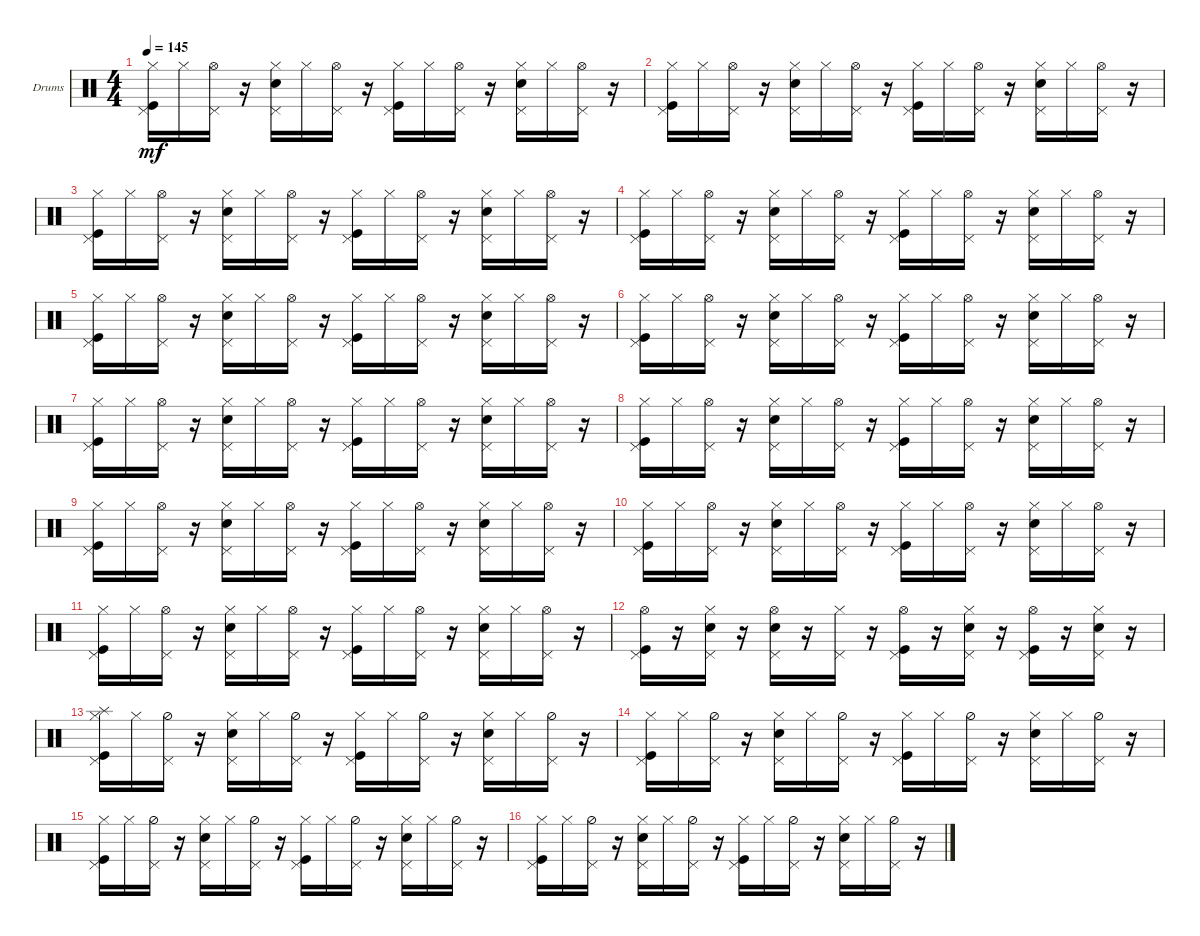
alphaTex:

\bracketExtendMode groupsimilarinstruments
\firstSystemTrackNameOrientation horizontal
\otherSystemsTrackNameOrientation horizontal
\track ("Drumkit" "Drums") {solo instrument percussion}
\staff {score}
\articulation defaults
\ts (4 4)
\tempo 145
\clef neutral
\ks c
("Kick (hit)" "Hi-Hat (closed)" "Pedal Hi-Hat (hit)").16{dy mf} "Hi-Hat (closed)".16 ("Pedal Hi-Hat (hit)" "Hi-Hat (open)").16 r.16 ("Snare (hit) 2" "Pedal Hi-Hat (hit)" "Hi-Hat (closed)").16 "Hi-Hat (closed)".16 ("Hi-Hat (open)" "Pedal Hi-Hat (hit)").16 r.16 ("Kick (hit)" "Hi-Hat (closed)" "Pedal Hi-Hat (hit)").16 "Hi-Hat (closed)".16 ("Hi-Hat (open)" "Pedal Hi-Hat (hit)").16 r.16 ("Snare (hit) 2" "Pedal Hi-Hat (hit)" "Hi-Hat (closed)").16 "Hi-Hat (closed)".16 ("Hi-Hat (open)" "Pedal Hi-Hat (hit)").16 r.16 |
("Kick (hit)" "Hi-Hat (closed)" "Pedal Hi-Hat (hit)").16 "Hi-Hat (closed)".16 ("Hi-Hat (open)" "Pedal Hi-Hat (hit)").16 r.16 ("Snare (hit) 2" "Pedal Hi-Hat (hit)" "Hi-Hat (closed)").16 "Hi-Hat (closed)".16 ("Hi-Hat (open)" "Pedal Hi-Hat (hit)").16 r.16 ("Kick (hit)" "Hi-Hat (closed)" "Pedal Hi-Hat (hit)").16 "Hi-Hat (closed)".16 ("Hi-Hat (open)" "Pedal Hi-Hat (hit)").16 r.16 ("Snare (hit) 2" "Pedal Hi-Hat (hit)" "Hi-Hat (closed)").16 "Hi-Hat (closed)".16 ("Hi-Hat (open)" "Pedal Hi-Hat (hit)").16 r.16 |
("Kick (hit)" "Hi-Hat (closed)" "Pedal Hi-Hat (hit)").16 "Hi-Hat (closed)".16 ("Hi-Hat (open)" "Pedal Hi-Hat (hit)").16 r.16 ("Snare (hit) 2" "Pedal Hi-Hat (hit)" "Hi-Hat (closed)").16 "Hi-Hat (closed)".16 ("Hi-Hat (open)" "Pedal Hi-Hat (hit)").16 r.16 ("Kick (hit)" "Hi-Hat (closed)" "Pedal Hi-Hat (hit)").16 "Hi-Hat (closed)".16 ("Hi-Hat (open)" "Pedal Hi-Hat (hit)").16 r.16 ("Snare (hit) 2" "Pedal Hi-Hat (hit)" "Hi-Hat (closed)").16 "Hi-Hat (closed)".16 ("Hi-Hat (open)" "Pedal Hi-Hat (hit)").16 r.16 |
("Kick (hit)" "Hi-Hat (closed)" "Pedal Hi-Hat (hit)").16 "Hi-Hat (closed)".16 ("Hi-Hat (open)" "Pedal Hi-Hat (hit)").16 r.16 ("Snare (hit) 2" "Pedal Hi-Hat (hit)" "Hi-Hat (closed)").16 "Hi-Hat (closed)".16 ("Hi-Hat (open)" "Pedal Hi-Hat (hit)").16 r.16 ("Kick (hit)" "Hi-Hat (closed)" "Pedal Hi-Hat (hit)").16 "Hi-Hat (closed)".16 ("Hi-Hat (open)" "Pedal Hi-Hat (hit)").16 r.16 ("Snare (hit) 2" "Pedal Hi-Hat (hit)" "Hi-Hat (closed)").16 "Hi-Hat (closed)".16 ("Hi-Hat (open)" "Pedal Hi-Hat (hit)").16 r.16 |
("Pedal Hi-Hat (hit)" "Kick (hit)" "Hi-Hat (closed)").16 "Hi-Hat (closed)".16 ("Hi-Hat (open)" "Pedal Hi-Hat (hit)").16 r.16 ("Snare (hit) 2" "Pedal Hi-Hat (hit)" "Hi-Hat (closed)").16 "Hi-Hat (closed)".16 ("Hi-Hat (open)" "Pedal Hi-Hat (hit)").16 r.16 ("Kick (hit)" "Hi-Hat (closed)" "Pedal Hi-Hat (hit)").16 "Hi-Hat (closed)".16 ("Hi-Hat (open)" "Pedal Hi-Hat (hit)").16 r.16 ("Snare (hit) 2" "Pedal Hi-Hat (hit)" "Hi-Hat (closed)").16 "Hi-Hat (closed)".16 ("Hi-Hat (open)" "Pedal Hi-Hat (hit)").16 r.16 |
("Kick (hit)" "Hi-Hat (closed)" "Pedal Hi-Hat (hit)").16 "Hi-Hat (closed)".16 ("Hi-Hat (open)" "Pedal Hi-Hat (hit)").16 r.16 ("Snare (hit) 2" "Pedal Hi-Hat (hit)" "Hi-Hat (closed)").16 "Hi-Hat (closed)".16 ("Hi-Hat (open)" "Pedal Hi-Hat (hit)").16 r.16 ("Kick (hit)" "Hi-Hat (closed)" "Pedal Hi-Hat (hit)").16 "Hi-Hat (closed)".16 ("Hi-Hat (open)" "Pedal Hi-Hat (hit)").16 r.16 ("Snare (hit) 2" "Pedal Hi-Hat (hit)" "Hi-Hat (closed)").16 "Hi-Hat (closed)".16 ("Hi-Hat (open)" "Pedal Hi-Hat (hit)").16 r.16 |
("Kick (hit)" "Hi-Hat (closed)" "Pedal Hi-Hat (hit)").16 "Hi-Hat (closed)".16 ("Hi-Hat (open)" "Pedal Hi-Hat (hit)").16 r.16 ("Snare (hit) 2" "Pedal Hi-Hat (hit)" "Hi-Hat (closed)").16 "Hi-Hat (closed)".16 ("Hi-Hat (open)" "Pedal Hi-Hat (hit)").16 r.16 ("Kick (hit)" "Hi-Hat (closed)" "Pedal Hi-Hat (hit)").16 "Hi-Hat (closed)".16 ("Hi-Hat (open)" "Pedal Hi-Hat (hit)").16 r.16 ("Snare (hit) 2" "Pedal Hi-Hat (hit)" "Hi-Hat (closed)").16 "Hi-Hat (closed)".16 ("Hi-Hat (open)" "Pedal Hi-Hat (hit)").16 r.16 |
("Kick (hit)" "Hi-Hat (closed)" "Pedal Hi-Hat (hit)").16 "Hi-Hat (closed)".16 ("Hi-Hat (open)" "Pedal Hi-Hat (hit)").16 r.16 ("Snare (hit) 2" "Pedal Hi-Hat (hit)" "Hi-Hat (closed)").16 "Hi-Hat (closed)".16 ("Hi-Hat (open)" "Pedal Hi-Hat (hit)").16 r.16 ("Kick (hit)" "Hi-Hat (closed)" "Pedal Hi-Hat (hit)").16 "Hi-Hat (closed)".16 ("Hi-Hat (open)" "Pedal Hi-Hat (hit)").16 r.16 ("Snare (hit) 2" "Pedal Hi-Hat (hit)" "Hi-Hat (closed)").16 "Hi-Hat (closed)".16 ("Hi-Hat (open)" "Pedal Hi-Hat (hit)").16 r.16 |
("Kick (hit)" "Hi-Hat (closed)" "Pedal Hi-Hat (hit)").16 "Hi-Hat (closed)".16 ("Hi-Hat (open)" "Pedal Hi-Hat (hit)").16 r.16 ("Snare (hit) 2" "Pedal Hi-Hat (hit)" "Hi-Hat (closed)").16 "Hi-Hat (closed)".16 ("Hi-Hat (open)" "Pedal Hi-Hat (hit)").16 r.16 ("Kick (hit)" "Hi-Hat (closed)" "Pedal Hi-Hat (hit)").16 "Hi-Hat (closed)".16 ("Hi-Hat (open)" "Pedal Hi-Hat (hit)").16 r.16 ("Snare (hit) 2" "Pedal Hi-Hat (hit)" "Hi-Hat (closed)").16 "Hi-Hat (closed)".16 ("Hi-Hat (open)" "Pedal Hi-Hat (hit)").16 r.16 |
("Kick (hit)" "Hi-Hat (closed)" "Pedal Hi-Hat (hit)").16 "Hi-Hat (closed)".16 ("Hi-Hat (open)" "Pedal Hi-Hat (hit)").16 r.16 ("Snare (hit) 2" "Pedal Hi-Hat (hit)" "Hi-Hat (closed)").16 "Hi-Hat (closed)".16 ("Hi-Hat (open)" "Pedal Hi-Hat (hit)").16 r.16 ("Kick (hit)" "Hi-Hat (closed)" "Pedal Hi-Hat (hit)").16 "Hi-Hat (closed)".16 ("Hi-Hat (open)" "Pedal Hi-Hat (hit)").16 r.16 ("Snare (hit) 2" "Pedal Hi-Hat (hit)" "Hi-Hat (closed)").16 "Hi-Hat (closed)".16 ("Hi-Hat (open)" "Pedal Hi-Hat (hit)").16 r.16 |
("Kick (hit)" "Hi-Hat (closed)" "Pedal Hi-Hat (hit)").16 "Hi-Hat (closed)".16 ("Hi-Hat (open)" "Pedal Hi-Hat (hit)").16 r.16 ("Snare (hit) 2" "Pedal Hi-Hat (hit)" "Hi-Hat (closed)").16 "Hi-Hat (closed)".16 ("Hi-Hat (open)" "Pedal Hi-Hat (hit)").16 r.16 ("Kick (hit)" "Hi-Hat (closed)" "Pedal Hi-Hat (hit)").16 "Hi-Hat (closed)".16 ("Hi-Hat (open)" "Pedal Hi-Hat (hit)").16 r.16 ("Snare (hit) 2" "Pedal Hi-Hat (hit)" "Hi-Hat (closed)").16 "Hi-Hat (closed)".16 ("Hi-Hat (open)" "Pedal Hi-Hat (hit)").16 r.16 |
("Kick (hit)" "Hi-Hat (open)" "Pedal Hi-Hat (hit)").16 r.16 ("Hi-Hat (closed)" "Snare (hit) 2" "Pedal Hi-Hat (hit)").16 r.16 ("Snare (hit) 2" "Hi-Hat (open)" "Pedal Hi-Hat (hit)").16 r.16 ("Hi-Hat (closed)" "Pedal Hi-Hat (hit)").16 r.16 ("Kick (hit)" "Hi-Hat (open)" "Pedal Hi-Hat (hit)").16 r.16 ("Hi-Hat (closed)" "Snare (hit) 2" "Pedal Hi-Hat (hit)").16 r.16 ("Hi-Hat (open)" "Kick (hit)" "Pedal Hi-Hat (hit)").16 r.16 ("Hi-Hat (closed)" "Snare (hit) 2" "Pedal Hi-Hat (hit)").16 r.16 |
("Kick (hit)" "Hi-Hat (closed)" "Pedal Hi-Hat (hit)" "Splash (hit)").16 "Hi-Hat (closed)".16 ("Hi-Hat (half)" "Pedal Hi-Hat (hit)").16 r.16 ("Snare (hit) 2" "Pedal Hi-Hat (hit)" "Hi-Hat (closed)").16 "Hi-Hat (closed)".16 ("Hi-Hat (half)" "Pedal Hi-Hat (hit)").16 r.16 ("Kick (hit)" "Hi-Hat (closed)" "Pedal Hi-Hat (hit)").16 "Hi-Hat (closed)".16 ("Hi-Hat (half)" "Pedal Hi-Hat (hit)").16 r.16 ("Snare (hit) 2" "Pedal Hi-Hat (hit)" "Hi-Hat (closed)").16 "Hi-Hat (closed)".16 ("Hi-Hat (half)" "Pedal Hi-Hat (hit)").16 r.16 |
("Kick (hit)" "Hi-Hat (closed)" "Pedal Hi-Hat (hit)").16 "Hi-Hat (closed)".16 ("Hi-Hat (half)" "Pedal Hi-Hat (hit)").16 r.16 ("Snare (hit) 2" "Pedal Hi-Hat (hit)" "Hi-Hat (closed)").16 "Hi-Hat (closed)".16 ("Hi-Hat (half)" "Pedal Hi-Hat (hit)").16 r.16 ("Kick (hit)" "Hi-Hat (closed)" "Pedal Hi-Hat (hit)").16 "Hi-Hat (closed)".16 ("Hi-Hat (half)" "Pedal Hi-Hat (hit)").16 r.16 ("Snare (hit) 2" "Pedal Hi-Hat (hit)" "Hi-Hat (closed)").16 "Hi-Hat (closed)".16 ("Hi-Hat (half)" "Pedal Hi-Hat (hit)").16 r.16 |
("Kick (hit)" "Hi-Hat (closed)" "Pedal Hi-Hat (hit)").16 "Hi-Hat (closed)".16 ("Hi-Hat (half)" "Pedal Hi-Hat (hit)").16 r.16 ("Snare (hit) 2" "Pedal Hi-Hat (hit)" "Hi-Hat (closed)").16 "Hi-Hat (closed)".16 ("Hi-Hat (half)" "Pedal Hi-Hat (hit)").16 r.16 ("Kick (hit)" "Hi-Hat (closed)" "Pedal Hi-Hat (hit)").16 "Hi-Hat (closed)".16 ("Hi-Hat (half)" "Pedal Hi-Hat (hit)").16 r.16 ("Snare (hit) 2" "Pedal Hi-Hat (hit)" "Hi-Hat (closed)").16 "Hi-Hat (closed)".16 ("Hi-Hat (half)" "Pedal Hi-Hat (hit)").16 r.16 |
("Kick (hit)" "Hi-Hat (closed)" "Pedal Hi-Hat (hit)").16 "Hi-Hat (closed)".16 ("Hi-Hat (half)" "Pedal Hi-Hat (hit)").16 r.16 ("Snare (hit) 2" "Pedal Hi-Hat (hit)" "Hi-Hat (closed)").16 "Hi-Hat (closed)".16 ("Hi-Hat (half)" "Pedal Hi-Hat (hit)").16 r.16 ("Kick (hit)" "Hi-Hat (closed)" "Pedal Hi-Hat (hit)").16 "Hi-Hat (closed)".16 ("Hi-Hat (half)" "Pedal Hi-Hat (hit)").16 r.16 ("Snare (hit) 2" "Pedal Hi-Hat (hit)" "Hi-Hat (closed)").16 "Hi-Hat (closed)".16 ("Hi-Hat (half)" "Pedal Hi-Hat (hit)").16 r.16
